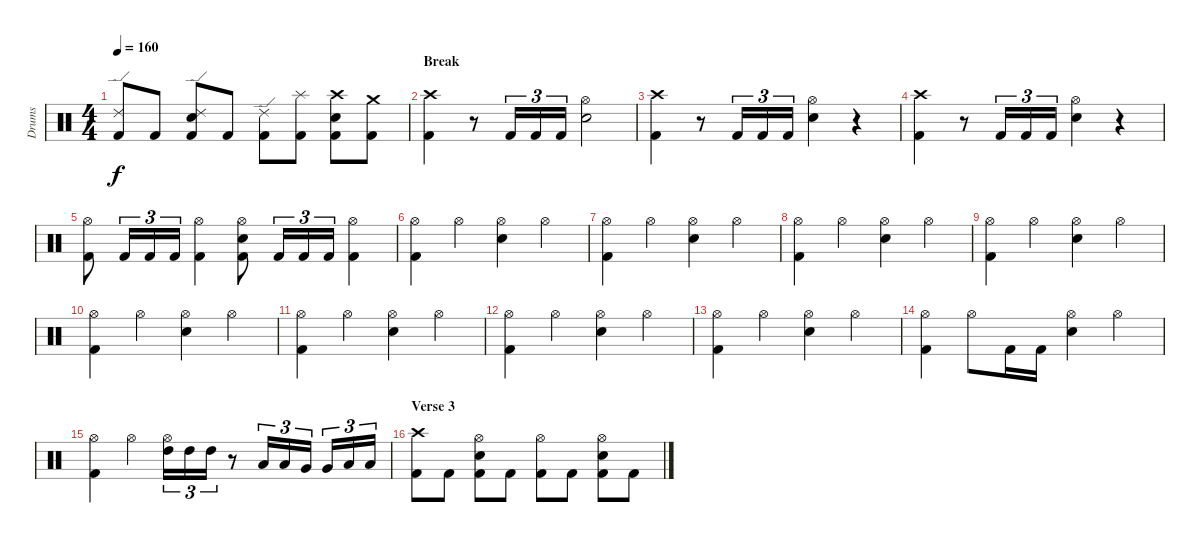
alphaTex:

\track ("Drums" "Drums") {instrument percussion}
\staff {score}
\articulation defaults
\ts (4 4)
\tempo 160
\clef neutral
\ks c
("Ride (edge) 2" "Kick (hit) 2").8{dy f} "Kick (hit) 2".8 ("Ride (edge) 2" "Electric Snare (hit)" "Kick (hit) 2").8 "Kick (hit) 2".8 ("Ride (edge) 2" "Kick (hit) 2").8 ("Splash (hit)" "Kick (hit) 2").8 ("Crash high (hit)" "Electric Snare (hit)" "Kick (hit) 2").8 ("Crash medium (hit)" "Kick (hit) 2").8 |
\section ("" "Break")
("Crash high (hit)" "Kick (hit) 2").4 r.8 "Kick (hit) 2".16{tu (3 2)} "Kick (hit) 2".16{tu (3 2)} "Kick (hit) 2".16{tu (3 2)} ("Hi-Hat (open)" "Electric Snare (hit)").2 |
("Crash high (hit)" "Kick (hit) 2").4 r.8 "Kick (hit) 2".16{tu (3 2)} "Kick (hit) 2".16{tu (3 2)} "Kick (hit) 2".16{tu (3 2)} ("Hi-Hat (open)" "Electric Snare (hit)").4 r.4 |
("Crash high (hit)" "Kick (hit) 2").4 r.8 "Kick (hit) 2".16{tu (3 2)} "Kick (hit) 2".16{tu (3 2)} "Kick (hit) 2".16{tu (3 2)} ("Hi-Hat (open)" "Electric Snare (hit)").4 r.4 |
("Hi-Hat (open)" "Kick (hit) 2").8 "Kick (hit) 2".16{tu (3 2)} "Kick (hit) 2".16{tu (3 2)} "Kick (hit) 2".16{tu (3 2)} ("Hi-Hat (open)" "Kick (hit) 2").4 ("Hi-Hat (open)" "Electric Snare (hit)" "Kick (hit) 2").8 "Kick (hit) 2".16{tu (3 2)} "Kick (hit) 2".16{tu (3 2)} "Kick (hit) 2".16{tu (3 2)} ("Hi-Hat (open)" "Kick (hit) 2").4 |
("Hi-Hat (open)" "Kick (hit) 2").4 "Hi-Hat (open)".4 ("Hi-Hat (open)" "Electric Snare (hit)").4 "Hi-Hat (open)".4 |
("Hi-Hat (open)" "Kick (hit) 2").4 "Hi-Hat (open)".4 ("Hi-Hat (open)" "Electric Snare (hit)").4 "Hi-Hat (open)".4 |
("Hi-Hat (open)" "Kick (hit) 2").4 "Hi-Hat (open)".4 ("Hi-Hat (open)" "Electric Snare (hit)").4 "Hi-Hat (open)".4 |
("Hi-Hat (open)" "Kick (hit) 2").4 "Hi-Hat (open)".4 ("Hi-Hat (open)" "Electric Snare (hit)").4 "Hi-Hat (open)".4 |
("Hi-Hat (open)" "Kick (hit) 2").4 "Hi-Hat (open)".4 ("Hi-Hat (open)" "Electric Snare (hit)").4 "Hi-Hat (open)".4 |
("Hi-Hat (open)" "Kick (hit) 2").4 "Hi-Hat (open)".4 ("Hi-Hat (open)" "Electric Snare (hit)").4 "Hi-Hat (open)".4 |
("Hi-Hat (open)" "Kick (hit) 2").4 "Hi-Hat (open)".4 ("Hi-Hat (open)" "Electric Snare (hit)").4 "Hi-Hat (open)".4 |
("Hi-Hat (open)" "Kick (hit) 2").4 "Hi-Hat (open)".4 ("Hi-Hat (open)" "Electric Snare (hit)").4 "Hi-Hat (open)".4 |
("Hi-Hat (open)" "Kick (hit) 2").4 "Hi-Hat (open)".8 "Kick (hit) 2".16 "Kick (hit) 2".16 ("Hi-Hat (open)" "Electric Snare (hit)").4 "Hi-Hat (open)".4 |
("Hi-Hat (open)" "Kick (hit) 2").4 "Hi-Hat (open)".4 ("Hi-Hat (open)" "High Tom (hit)").16{tu (3 2)} "High Tom (hit)".16{tu (3 2)} "High Tom (hit)".16{tu (3 2)} r.8 "Low Tom (hit)".16{tu (3 2)} "Low Tom (hit)".16{tu (3 2)} "Very Low Tom (hit)".16{tu (3 2)} "Very Low Tom (hit)".16{tu (3 2)} "Low Floor Tom (hit)".16{tu (3 2)} "Low Floor Tom (hit)".16{tu (3 2)} |
\section ("" "Verse 3")
("Crash high (hit)" "Kick (hit) 2").8 "Kick (hit) 2".8 ("Hi-Hat (open)" "Electric Snare (hit)" "Kick (hit) 2").8 "Kick (hit) 2".8 ("Hi-Hat (open)" "Kick (hit) 2").8 "Kick (hit) 2".8 ("Hi-Hat (open)" "Electric Snare (hit)" "Kick (hit) 2").8 "Kick (hit) 2".8
